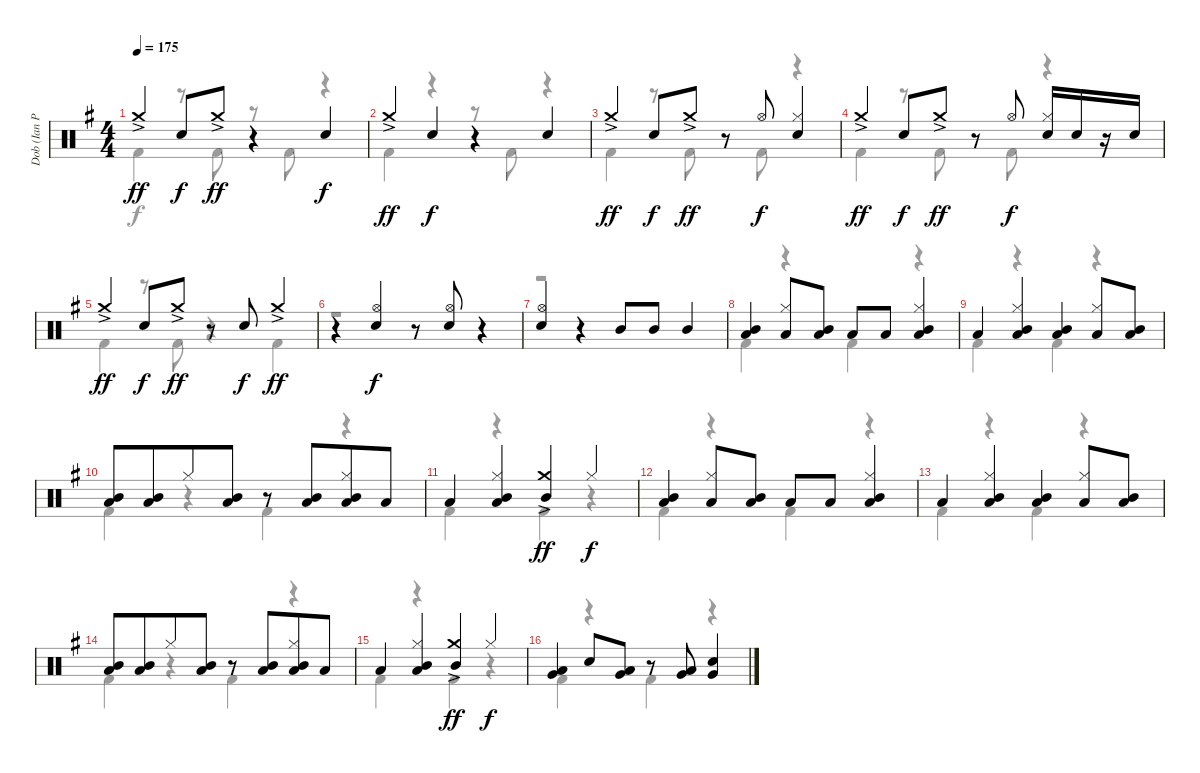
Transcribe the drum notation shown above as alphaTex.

\track ("Dob (Ian Paice)" "Dob (Ian P") {instrument percussion}
\staff {score}
\articulation defaults
\voice
\ts (4 4)
\tempo 175
\clef neutral
\ks g "Crash medium (hit)"{ac}.4{dy ff} "Electric Snare (hit)".8{dy f} "Crash medium (hit)"{ac}.8{dy ff}
r.4 "Electric Snare (hit)".4{dy f} |
"Crash medium (hit)"{ac}.4{dy ff} "Electric Snare (hit)".4{dy f} r.4 "Electric Snare (hit)".4 |
"Crash medium (hit)"{ac}.4{dy ff} "Electric Snare (hit)".8{dy f} "Crash medium (hit)"{ac}.8{dy ff} r.8 "Hi-Hat (open)".8{dy f} ("Hi-Hat (closed)" "Electric Snare (hit)").4 |
"Crash medium (hit)"{ac}.4{dy ff} "Electric Snare (hit)".8{dy f} "Crash medium (hit)"{ac}.8{dy ff} r.8 "Hi-Hat (open)".8{dy f} ("Hi-Hat (closed)" "Electric Snare (hit)").16 "Electric Snare (hit)".16 r.16 "Electric Snare (hit)".16 |
"Crash medium (hit)"{ac}.4{dy ff} "Electric Snare (hit)".8{dy f} "Crash medium (hit)"{ac}.8{dy ff} r.8 "Electric Snare (hit)".8{dy f} "Crash medium (hit)"{ac}.4{dy ff} |
r.4 ("Hi-Hat (open)" "Electric Snare (hit)").4{dy f} r.8 ("Hi-Hat (open)" "Electric Snare (hit)").8 r.4 |
("Hi-Hat (open)" "Electric Snare (hit)").4 r.4 "Mid Tom (hit)".8 "Mid Tom (hit)".8 "Mid Tom (hit)".4 |
("Mid Tom (hit)" "Low Tom (hit)").4 ("Hi-Hat (closed)" "Low Tom (hit)").8 ("Mid Tom (hit)" "Low Tom (hit)").8 "Low Tom (hit)".8 "Low Tom (hit)".8 ("Hi-Hat (closed)" "Mid Tom (hit)" "Low Tom (hit)").4 |
"Low Tom (hit)".4 ("Hi-Hat (closed)" "Mid Tom (hit)" "Low Tom (hit)").4 ("Mid Tom (hit)" "Low Tom (hit)").4 ("Hi-Hat (closed)" "Low Tom (hit)").8 ("Mid Tom (hit)" "Low Tom (hit)").8 |
("Mid Tom (hit)" "Low Tom (hit)").8 ("Mid Tom (hit)" "Low Tom (hit)").8{beam merge} "Hi-Hat (closed)".8 ("Mid Tom (hit)" "Low Tom (hit)").8 r.8 ("Mid Tom (hit)" "Low Tom (hit)").8{beam merge} ("Hi-Hat (closed)" "Mid Tom (hit)" "Low Tom (hit)").8 "Low Tom (hit)".8 |
"Low Tom (hit)".4 ("Hi-Hat (closed)" "Mid Tom (hit)" "Low Tom (hit)").4 ("Crash medium (hit)"{ac} "Mid Tom (hit)").4{dy ff} "Hi-Hat (closed)".4{dy f} |
("Mid Tom (hit)" "Low Tom (hit)").4 ("Hi-Hat (closed)" "Low Tom (hit)").8 ("Mid Tom (hit)" "Low Tom (hit)").8 "Low Tom (hit)".8 "Low Tom (hit)".8 ("Hi-Hat (closed)" "Mid Tom (hit)" "Low Tom (hit)").4 |
"Low Tom (hit)".4 ("Hi-Hat (closed)" "Mid Tom (hit)" "Low Tom (hit)").4 ("Mid Tom (hit)" "Low Tom (hit)").4 ("Hi-Hat (closed)" "Low Tom (hit)").8 ("Mid Tom (hit)" "Low Tom (hit)").8 |
("Mid Tom (hit)" "Low Tom (hit)").8 ("Mid Tom (hit)" "Low Tom (hit)").8{beam merge} "Hi-Hat (closed)".8 ("Mid Tom (hit)" "Low Tom (hit)").8 r.8 ("Mid Tom (hit)" "Low Tom (hit)").8{beam merge} ("Hi-Hat (closed)" "Mid Tom (hit)" "Low Tom (hit)").8 "Low Tom (hit)".8 |
"Low Tom (hit)".4 ("Hi-Hat (closed)" "Mid Tom (hit)" "Low Tom (hit)").4 ("Crash medium (hit)"{ac} "Mid Tom (hit)").4{dy ff} "Hi-Hat (closed)".4{dy f} |
("Low Tom (hit)" "Very Low Tom (hit)").4 "Electric Snare (hit)".8 ("Low Tom (hit)" "Very Low Tom (hit)").8 r.8 ("Low Tom (hit)" "Very Low Tom (hit)").8 ("Electric Snare (hit)" "Very Low Tom (hit)").4
\voice
\clef neutral
\ottava regular
\simile none
\ks g "Kick (hit) 2".4{dy f}
r.8 "Kick (hit) 2".8 r.8 "Kick (hit) 2".8 r.4 |
"Kick (hit) 2".4 r.4 r.8 "Kick (hit) 2".8 r.4 |
"Kick (hit) 2".4 r.8 "Kick (hit) 2".8 r.8 "Kick (hit) 2".8 r.4 |
"Kick (hit) 2".4 r.8 "Kick (hit) 2".8 r.8 "Kick (hit) 2".8 r.4 |
"Kick (hit) 2".4 r.8 "Kick (hit) 2".8 r.4 "Kick (hit) 2".4 |
r.1 |
r.1 |
"Kick (hit) 2".4 r.4 "Kick (hit) 2".4 r.4 |
"Kick (hit) 2".4 r.4 "Kick (hit) 2".4 r.4 |
"Kick (hit) 2".4 r.4 "Kick (hit) 2".4 r.4 |
"Kick (hit) 2".4 r.4 "Kick (hit) 2".4 r.4 |
"Kick (hit) 2".4 r.4 "Kick (hit) 2".4 r.4 |
"Kick (hit) 2".4 r.4 "Kick (hit) 2".4 r.4 |
"Kick (hit) 2".4 r.4 "Kick (hit) 2".4 r.4 |
"Kick (hit) 2".4 r.4 "Kick (hit) 2".4 r.4 |
"Kick (hit) 2".4 r.4 "Kick (hit) 2".4 r.4
